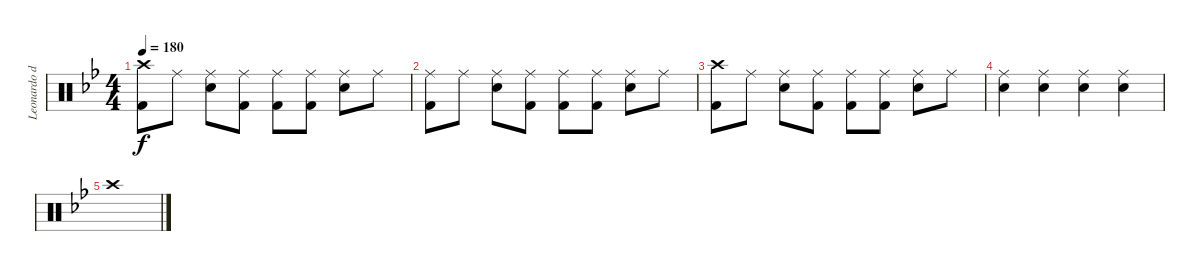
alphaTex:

\track ("Leonardo de Cecco" "Leonardo d") {instrument percussion}
\staff {score}
\articulation defaults
\ts (4 4)
\tempo 180
\clef neutral
\ks bb
("Crash high (hit)" "Kick (hit) 2").8{dy f} "Ride (middle)".8 ("Ride (middle)" "Snare (hit) 2").8 ("Ride (middle)" "Kick (hit) 2").8 ("Ride (middle)" "Kick (hit) 2").8 ("Ride (middle)" "Kick (hit) 2").8 ("Ride (middle)" "Snare (hit) 2").8 "Ride (middle)".8 |
("Ride (middle)" "Kick (hit) 2").8 "Ride (middle)".8 ("Ride (middle)" "Snare (hit) 2").8 ("Ride (middle)" "Kick (hit) 2").8 ("Ride (middle)" "Kick (hit) 2").8 ("Ride (middle)" "Kick (hit) 2").8 ("Ride (middle)" "Snare (hit) 2").8 "Ride (middle)".8 |
("Crash high (hit)" "Kick (hit) 2").8 "Ride (middle)".8 ("Ride (middle)" "Snare (hit) 2").8 ("Ride (middle)" "Kick (hit) 2").8 ("Ride (middle)" "Kick (hit) 2").8 ("Ride (middle)" "Kick (hit) 2").8 ("Ride (middle)" "Snare (hit) 2").8 "Ride (middle)".8 |
("Ride (middle)" "Snare (hit) 2").4 ("Ride (middle)" "Snare (hit) 2").4 ("Ride (middle)" "Snare (hit) 2").4 ("Ride (middle)" "Snare (hit) 2").4 |
"Crash high (hit)".1
